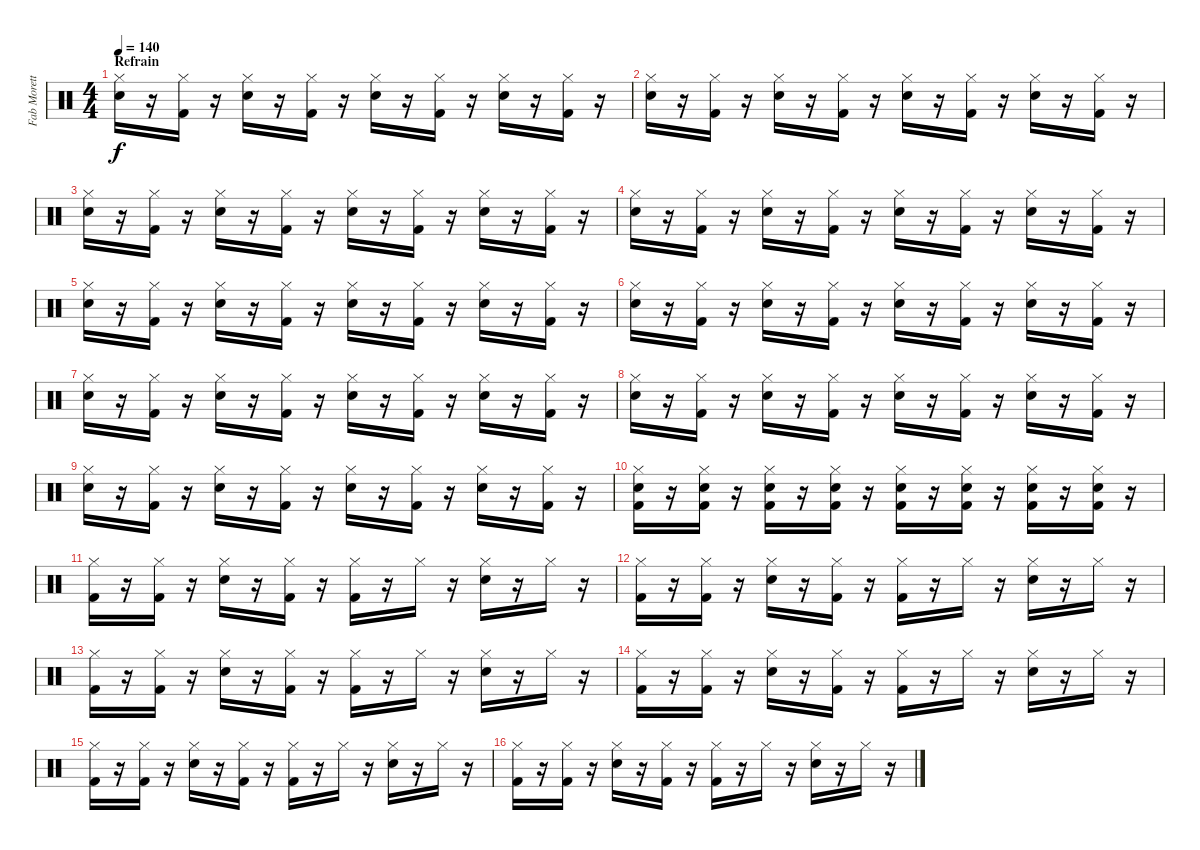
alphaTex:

\track ("Fab Moretti - Drums" "Fab Morett") {instrument percussion}
\staff {score}
\articulation defaults
\ts (4 4)
\section ("" "Refrain")
\tempo 140
\clef neutral
\ks c
("Hi-Hat (closed)" "Snare (hit) 2").16{dy f} r.16 ("Hi-Hat (closed)" "Kick (hit) 2").16 r.16 ("Hi-Hat (closed)" "Snare (hit) 2").16 r.16 ("Hi-Hat (closed)" "Kick (hit) 2").16 r.16 ("Hi-Hat (closed)" "Snare (hit) 2").16 r.16 ("Hi-Hat (closed)" "Kick (hit) 2").16 r.16 ("Hi-Hat (closed)" "Snare (hit) 2").16 r.16 ("Hi-Hat (closed)" "Kick (hit) 2").16 r.16 |
("Hi-Hat (closed)" "Snare (hit) 2").16 r.16 ("Hi-Hat (closed)" "Kick (hit) 2").16 r.16 ("Hi-Hat (closed)" "Snare (hit) 2").16 r.16 ("Hi-Hat (closed)" "Kick (hit) 2").16 r.16 ("Hi-Hat (closed)" "Snare (hit) 2").16 r.16 ("Hi-Hat (closed)" "Kick (hit) 2").16 r.16 ("Hi-Hat (closed)" "Snare (hit) 2").16 r.16 ("Hi-Hat (closed)" "Kick (hit) 2").16 r.16 |
("Hi-Hat (closed)" "Snare (hit) 2").16 r.16 ("Hi-Hat (closed)" "Kick (hit) 2").16 r.16 ("Hi-Hat (closed)" "Snare (hit) 2").16 r.16 ("Hi-Hat (closed)" "Kick (hit) 2").16 r.16 ("Hi-Hat (closed)" "Snare (hit) 2").16 r.16 ("Hi-Hat (closed)" "Kick (hit) 2").16 r.16 ("Hi-Hat (closed)" "Snare (hit) 2").16 r.16 ("Hi-Hat (closed)" "Kick (hit) 2").16 r.16 |
("Hi-Hat (closed)" "Snare (hit) 2").16 r.16 ("Hi-Hat (closed)" "Kick (hit) 2").16 r.16 ("Hi-Hat (closed)" "Snare (hit) 2").16 r.16 ("Hi-Hat (closed)" "Kick (hit) 2").16 r.16 ("Hi-Hat (closed)" "Snare (hit) 2").16 r.16 ("Hi-Hat (closed)" "Kick (hit) 2").16 r.16 ("Hi-Hat (closed)" "Snare (hit) 2").16 r.16 ("Hi-Hat (closed)" "Kick (hit) 2").16 r.16 |
("Hi-Hat (closed)" "Snare (hit) 2").16 r.16 ("Hi-Hat (closed)" "Kick (hit) 2").16 r.16 ("Hi-Hat (closed)" "Snare (hit) 2").16 r.16 ("Hi-Hat (closed)" "Kick (hit) 2").16 r.16 ("Hi-Hat (closed)" "Snare (hit) 2").16 r.16 ("Hi-Hat (closed)" "Kick (hit) 2").16 r.16 ("Hi-Hat (closed)" "Snare (hit) 2").16 r.16 ("Hi-Hat (closed)" "Kick (hit) 2").16 r.16 |
("Hi-Hat (closed)" "Snare (hit) 2").16 r.16 ("Hi-Hat (closed)" "Kick (hit) 2").16 r.16 ("Hi-Hat (closed)" "Snare (hit) 2").16 r.16 ("Hi-Hat (closed)" "Kick (hit) 2").16 r.16 ("Hi-Hat (closed)" "Snare (hit) 2").16 r.16 ("Hi-Hat (closed)" "Kick (hit) 2").16 r.16 ("Hi-Hat (closed)" "Snare (hit) 2").16 r.16 ("Hi-Hat (closed)" "Kick (hit) 2").16 r.16 |
("Hi-Hat (closed)" "Snare (hit) 2").16 r.16 ("Hi-Hat (closed)" "Kick (hit) 2").16 r.16 ("Hi-Hat (closed)" "Snare (hit) 2").16 r.16 ("Hi-Hat (closed)" "Kick (hit) 2").16 r.16 ("Hi-Hat (closed)" "Snare (hit) 2").16 r.16 ("Hi-Hat (closed)" "Kick (hit) 2").16 r.16 ("Hi-Hat (closed)" "Snare (hit) 2").16 r.16 ("Hi-Hat (closed)" "Kick (hit) 2").16 r.16 |
("Hi-Hat (closed)" "Snare (hit) 2").16 r.16 ("Hi-Hat (closed)" "Kick (hit) 2").16 r.16 ("Hi-Hat (closed)" "Snare (hit) 2").16 r.16 ("Hi-Hat (closed)" "Kick (hit) 2").16 r.16 ("Hi-Hat (closed)" "Snare (hit) 2").16 r.16 ("Hi-Hat (closed)" "Kick (hit) 2").16 r.16 ("Hi-Hat (closed)" "Snare (hit) 2").16 r.16 ("Hi-Hat (closed)" "Kick (hit) 2").16 r.16 |
("Hi-Hat (closed)" "Snare (hit) 2").16 r.16 ("Hi-Hat (closed)" "Kick (hit) 2").16 r.16 ("Hi-Hat (closed)" "Snare (hit) 2").16 r.16 ("Hi-Hat (closed)" "Kick (hit) 2").16 r.16 ("Hi-Hat (closed)" "Snare (hit) 2").16 r.16 ("Hi-Hat (closed)" "Kick (hit) 2").16 r.16 ("Hi-Hat (closed)" "Snare (hit) 2").16 r.16 ("Hi-Hat (closed)" "Kick (hit) 2").16 r.16 |
("Hi-Hat (closed)" "Snare (hit) 2" "Kick (hit) 2").16 r.16 ("Hi-Hat (closed)" "Snare (hit) 2" "Kick (hit) 2").16 r.16 ("Hi-Hat (closed)" "Snare (hit) 2" "Kick (hit) 2").16 r.16 ("Hi-Hat (closed)" "Snare (hit) 2" "Kick (hit) 2").16 r.16 ("Hi-Hat (closed)" "Snare (hit) 2" "Kick (hit) 2").16 r.16 ("Hi-Hat (closed)" "Snare (hit) 2" "Kick (hit) 2").16 r.16 ("Hi-Hat (closed)" "Snare (hit) 2" "Kick (hit) 2").16 r.16 ("Hi-Hat (closed)" "Snare (hit) 2" "Kick (hit) 2").16 r.16 |
("Hi-Hat (closed)" "Kick (hit) 2").16 r.16 ("Hi-Hat (closed)" "Kick (hit) 2").16 r.16 ("Hi-Hat (closed)" "Snare (hit) 2").16 r.16 ("Hi-Hat (closed)" "Kick (hit) 2").16 r.16 ("Hi-Hat (closed)" "Kick (hit) 2").16 r.16 "Hi-Hat (closed)".16 r.16 ("Hi-Hat (closed)" "Snare (hit) 2").16 r.16 "Hi-Hat (closed)".16 r.16 |
("Hi-Hat (closed)" "Kick (hit) 2").16 r.16 ("Hi-Hat (closed)" "Kick (hit) 2").16 r.16 ("Hi-Hat (closed)" "Snare (hit) 2").16 r.16 ("Hi-Hat (closed)" "Kick (hit) 2").16 r.16 ("Hi-Hat (closed)" "Kick (hit) 2").16 r.16 "Hi-Hat (closed)".16 r.16 ("Hi-Hat (closed)" "Snare (hit) 2").16 r.16 "Hi-Hat (closed)".16 r.16 |
("Hi-Hat (closed)" "Kick (hit) 2").16 r.16 ("Hi-Hat (closed)" "Kick (hit) 2").16 r.16 ("Hi-Hat (closed)" "Snare (hit) 2").16 r.16 ("Hi-Hat (closed)" "Kick (hit) 2").16 r.16 ("Hi-Hat (closed)" "Kick (hit) 2").16 r.16 "Hi-Hat (closed)".16 r.16 ("Hi-Hat (closed)" "Snare (hit) 2").16 r.16 "Hi-Hat (closed)".16 r.16 |
("Hi-Hat (closed)" "Kick (hit) 2").16 r.16 ("Hi-Hat (closed)" "Kick (hit) 2").16 r.16 ("Hi-Hat (closed)" "Snare (hit) 2").16 r.16 ("Hi-Hat (closed)" "Kick (hit) 2").16 r.16 ("Hi-Hat (closed)" "Kick (hit) 2").16 r.16 "Hi-Hat (closed)".16 r.16 ("Hi-Hat (closed)" "Snare (hit) 2").16 r.16 "Hi-Hat (closed)".16 r.16 |
("Hi-Hat (closed)" "Kick (hit) 2").16 r.16 ("Hi-Hat (closed)" "Kick (hit) 2").16 r.16 ("Hi-Hat (closed)" "Snare (hit) 2").16 r.16 ("Hi-Hat (closed)" "Kick (hit) 2").16 r.16 ("Hi-Hat (closed)" "Kick (hit) 2").16 r.16 "Hi-Hat (closed)".16 r.16 ("Hi-Hat (closed)" "Snare (hit) 2").16 r.16 "Hi-Hat (closed)".16 r.16 |
("Hi-Hat (closed)" "Kick (hit) 2").16 r.16 ("Hi-Hat (closed)" "Kick (hit) 2").16 r.16 ("Hi-Hat (closed)" "Snare (hit) 2").16 r.16 ("Hi-Hat (closed)" "Kick (hit) 2").16 r.16 ("Hi-Hat (closed)" "Kick (hit) 2").16 r.16 "Hi-Hat (closed)".16 r.16 ("Hi-Hat (closed)" "Snare (hit) 2").16 r.16 "Hi-Hat (closed)".16 r.16
